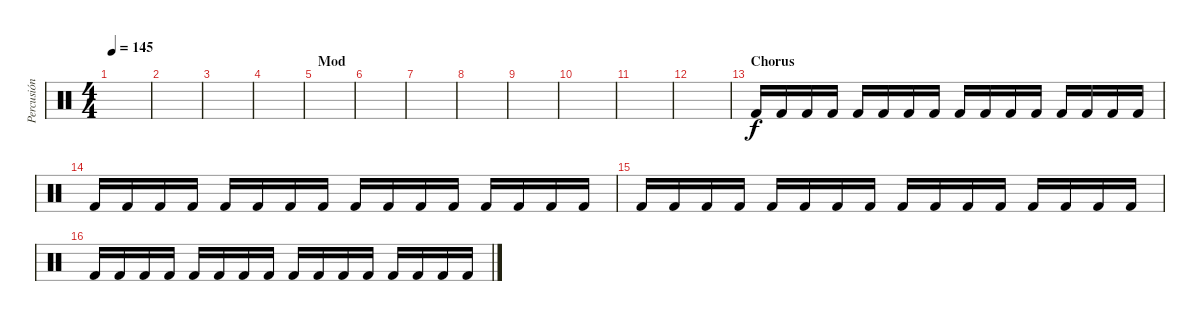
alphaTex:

\track ("Percusión" "Percusión") {instrument percussion}
\staff {score}
\articulation defaults
\ts (4 4)
\tempo 145
\clef neutral
\ks c
|
|
|
|
\section ("" "Mod")
|
|
|
|
|
|
|
|
\section ("" "Chorus")
"Kick (hit) 2".16 "Kick (hit) 2".16 "Kick (hit) 2".16 "Kick (hit) 2".16 "Kick (hit) 2".16 "Kick (hit) 2".16 "Kick (hit) 2".16 "Kick (hit) 2".16 "Kick (hit) 2".16 "Kick (hit) 2".16 "Kick (hit) 2".16 "Kick (hit) 2".16 "Kick (hit) 2".16 "Kick (hit) 2".16 "Kick (hit) 2".16 "Kick (hit) 2".16 |
"Kick (hit) 2".16 "Kick (hit) 2".16 "Kick (hit) 2".16 "Kick (hit) 2".16 "Kick (hit) 2".16 "Kick (hit) 2".16 "Kick (hit) 2".16 "Kick (hit) 2".16 "Kick (hit) 2".16 "Kick (hit) 2".16 "Kick (hit) 2".16 "Kick (hit) 2".16 "Kick (hit) 2".16 "Kick (hit) 2".16 "Kick (hit) 2".16 "Kick (hit) 2".16 |
"Kick (hit) 2".16 "Kick (hit) 2".16 "Kick (hit) 2".16 "Kick (hit) 2".16 "Kick (hit) 2".16 "Kick (hit) 2".16 "Kick (hit) 2".16 "Kick (hit) 2".16 "Kick (hit) 2".16 "Kick (hit) 2".16 "Kick (hit) 2".16 "Kick (hit) 2".16 "Kick (hit) 2".16 "Kick (hit) 2".16 "Kick (hit) 2".16 "Kick (hit) 2".16 |
"Kick (hit) 2".16 "Kick (hit) 2".16 "Kick (hit) 2".16 "Kick (hit) 2".16 "Kick (hit) 2".16 "Kick (hit) 2".16 "Kick (hit) 2".16 "Kick (hit) 2".16 "Kick (hit) 2".16 "Kick (hit) 2".16 "Kick (hit) 2".16 "Kick (hit) 2".16 "Kick (hit) 2".16 "Kick (hit) 2".16 "Kick (hit) 2".16 "Kick (hit) 2".16
